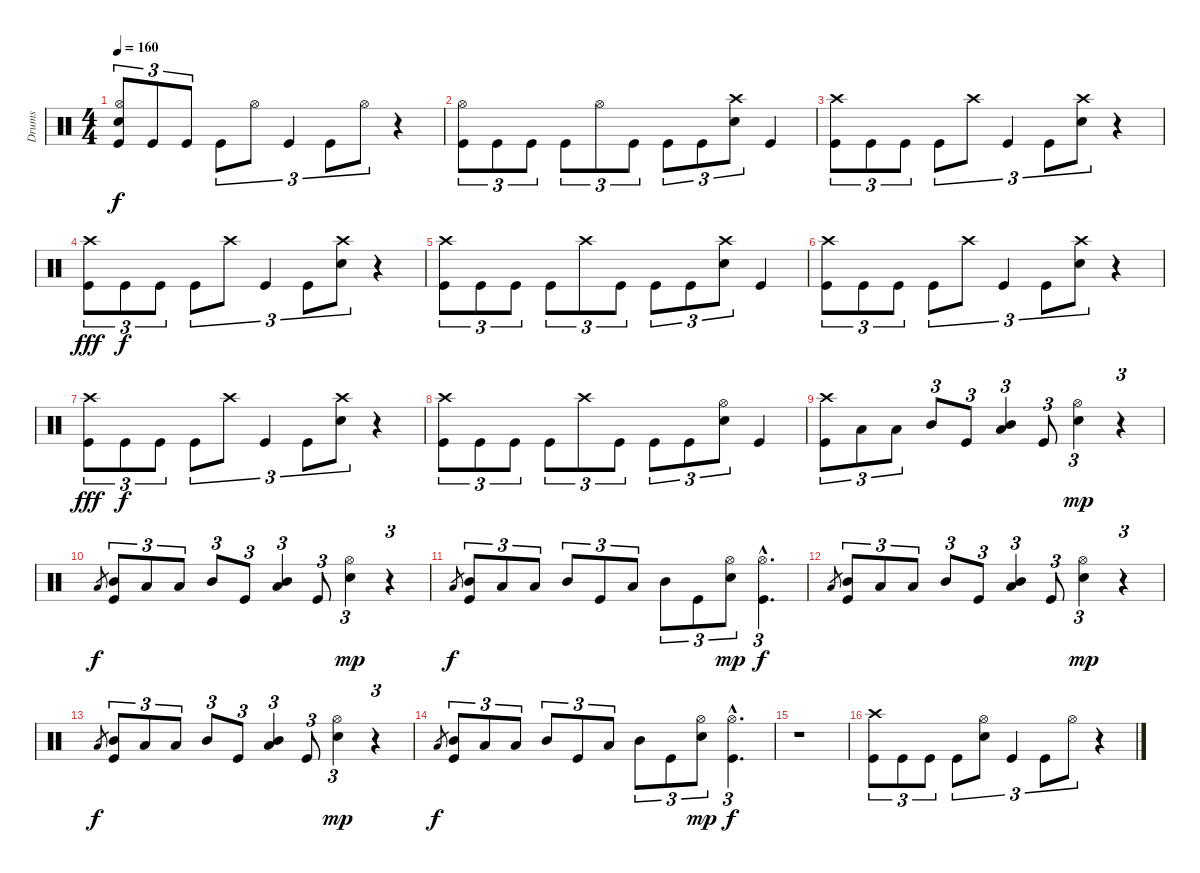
\track ("Drums" "Drums") {instrument percussion}
\staff {score}
\articulation defaults
\ts (4 4)
\tempo 160
\clef neutral
\ks c
("Electric Snare (hit)" "Hi-Hat (open)" "Kick (hit)").8{tu (3 2) dy f} "Kick (hit)".8{tu (3 2)} "Kick (hit)".8{tu (3 2)} "Kick (hit)".8{tu (3 2)} "Hi-Hat (open)".8{tu (3 2)} "Kick (hit)".4{tu (3 2)} "Kick (hit)".8{tu (3 2)} "Hi-Hat (open)".8{tu (3 2)} r.4 |
("Hi-Hat (open)" "Kick (hit)").8{tu (3 2)} "Kick (hit)".8{tu (3 2)} "Kick (hit)".8{tu (3 2)} "Kick (hit)".8{tu (3 2)} "Hi-Hat (open)".8{tu (3 2)} "Kick (hit)".8{tu (3 2)} "Kick (hit)".8{tu (3 2)} "Kick (hit)".8{tu (3 2)} ("Electric Snare (hit)" "Crash high (hit)").8{tu (3 2)} "Kick (hit)".4 |
("Crash high (hit)" "Kick (hit)").8{tu (3 2)} "Kick (hit)".8{tu (3 2)} "Kick (hit)".8{tu (3 2)} "Kick (hit)".8{tu (3 2)} "Crash high (hit)".8{tu (3 2)} "Kick (hit)".4{tu (3 2)} "Kick (hit)".8{tu (3 2)} ("Electric Snare (hit)" "Crash high (hit)").8{tu (3 2)} r.4 |
("Crash high (hit)" "Kick (hit)").8{tu (3 2) dy fff} "Kick (hit)".8{tu (3 2) dy f} "Kick (hit)".8{tu (3 2)} "Kick (hit)".8{tu (3 2)} "Crash high (hit)".8{tu (3 2)} "Kick (hit)".4{tu (3 2)} "Kick (hit)".8{tu (3 2)} ("Electric Snare (hit)" "Crash high (hit)").8{tu (3 2)} r.4 |
("Crash high (hit)" "Kick (hit)").8{tu (3 2)} "Kick (hit)".8{tu (3 2)} "Kick (hit)".8{tu (3 2)} "Kick (hit)".8{tu (3 2)} "Crash high (hit)".8{tu (3 2)} "Kick (hit)".8{tu (3 2)} "Kick (hit)".8{tu (3 2)} "Kick (hit)".8{tu (3 2)} ("Electric Snare (hit)" "Crash high (hit)").8{tu (3 2)} "Kick (hit)".4 |
("Crash high (hit)" "Kick (hit)").8{tu (3 2)} "Kick (hit)".8{tu (3 2)} "Kick (hit)".8{tu (3 2)} "Kick (hit)".8{tu (3 2)} "Crash high (hit)".8{tu (3 2)} "Kick (hit)".4{tu (3 2)} "Kick (hit)".8{tu (3 2)} ("Electric Snare (hit)" "Crash high (hit)").8{tu (3 2)} r.4 |
("Crash high (hit)" "Kick (hit)").8{tu (3 2) dy fff} "Kick (hit)".8{tu (3 2) dy f} "Kick (hit)".8{tu (3 2)} "Kick (hit)".8{tu (3 2)} "Crash high (hit)".8{tu (3 2)} "Kick (hit)".4{tu (3 2)} "Kick (hit)".8{tu (3 2)} ("Electric Snare (hit)" "Crash high (hit)").8{tu (3 2)} r.4 |
("Crash high (hit)" "Kick (hit)").8{tu (3 2)} "Kick (hit)".8{tu (3 2)} "Kick (hit)".8{tu (3 2)} "Kick (hit)".8{tu (3 2)} "Crash high (hit)".8{tu (3 2)} "Kick (hit)".8{tu (3 2)} "Kick (hit)".8{tu (3 2)} "Kick (hit)".8{tu (3 2)} ("Electric Snare (hit)" "Hi-Hat (open)").8{tu (3 2)} "Kick (hit)".4 |
("Crash high (hit)" "Kick (hit)").8{tu (3 2)} "Low Tom (hit)".8{tu (3 2)} "Low Floor Tom (hit)".8{tu (3 2)} "Mid Tom (hit)".8{tu (3 2)} "Kick (hit)".8{tu (3 2)} ("Mid Tom (hit)" "Low Floor Tom (hit)").4{tu (3 2)} "Kick (hit)".8{tu (3 2)} ("Hi-Hat (open)" "Electric Snare (hit)").4{tu (3 2) dy mp} r.4{tu (3 2)} |
"Low Tom (hit)".8{gr dy f} ("Kick (hit)" "Mid Tom (hit)").8{tu (3 2)} "Low Tom (hit)".8{tu (3 2)} "Low Floor Tom (hit)".8{tu (3 2)} "Mid Tom (hit)".8{tu (3 2)} "Kick (hit)".8{tu (3 2)} ("Mid Tom (hit)" "Low Floor Tom (hit)").4{tu (3 2)} "Kick (hit)".8{tu (3 2)} ("Hi-Hat (open)" "Electric Snare (hit)").4{tu (3 2) dy mp} r.4{tu (3 2)} |
"Low Tom (hit)".8{gr dy f} ("Mid Tom (hit)" "Kick (hit)").8{tu (3 2)} "Low Tom (hit)".8{tu (3 2)} "Low Floor Tom (hit)".8{tu (3 2)} "Mid Tom (hit)".8{tu (3 2)} "Kick (hit)".8{tu (3 2)} "Low Tom (hit)".8{tu (3 2)} "Mid Tom (hit)".8{tu (3 2)} "Kick (hit)".8{tu (3 2)} ("Hi-Hat (open)" "Electric Snare (hit)").8{tu (3 2) dy mp} ("Hi-Hat (open)"{hac} "Kick (hit)"{hac}).4{d tu (3 2) dy f} |
"Low Tom (hit)".8{gr} ("Kick (hit)" "Mid Tom (hit)").8{tu (3 2)} "Low Tom (hit)".8{tu (3 2)} "Low Floor Tom (hit)".8{tu (3 2)} "Mid Tom (hit)".8{tu (3 2)} "Kick (hit)".8{tu (3 2)} ("Mid Tom (hit)" "Low Floor Tom (hit)").4{tu (3 2)} "Kick (hit)".8{tu (3 2)} ("Hi-Hat (open)" "Electric Snare (hit)").4{tu (3 2) dy mp} r.4{tu (3 2)} |
"Low Tom (hit)".8{gr dy f} ("Kick (hit)" "Mid Tom (hit)").8{tu (3 2)} "Low Tom (hit)".8{tu (3 2)} "Low Floor Tom (hit)".8{tu (3 2)} "Mid Tom (hit)".8{tu (3 2)} "Kick (hit)".8{tu (3 2)} ("Mid Tom (hit)" "Low Floor Tom (hit)").4{tu (3 2)} "Kick (hit)".8{tu (3 2)} ("Hi-Hat (open)" "Electric Snare (hit)").4{tu (3 2) dy mp} r.4{tu (3 2)} |
"Low Tom (hit)".8{gr dy f} ("Mid Tom (hit)" "Kick (hit)").8{tu (3 2)} "Low Tom (hit)".8{tu (3 2)} "Low Floor Tom (hit)".8{tu (3 2)} "Mid Tom (hit)".8{tu (3 2)} "Kick (hit)".8{tu (3 2)} "Low Tom (hit)".8{tu (3 2)} "Mid Tom (hit)".8{tu (3 2)} "Kick (hit)".8{tu (3 2)} ("Hi-Hat (open)" "Electric Snare (hit)").8{tu (3 2) dy mp} ("Hi-Hat (open)"{hac} "Kick (hit)"{hac}).4{d tu (3 2) dy f} |
r.1 |
("Crash high (hit)" "Kick (hit)").8{tu (3 2)} "Kick (hit)".8{tu (3 2)} "Kick (hit)".8{tu (3 2)} "Kick (hit)".8{tu (3 2)} ("Electric Snare (hit)" "Hi-Hat (open)").8{tu (3 2)} "Kick (hit)".4{tu (3 2)} "Kick (hit)".8{tu (3 2)} "Hi-Hat (open)".8{tu (3 2)} r.4
